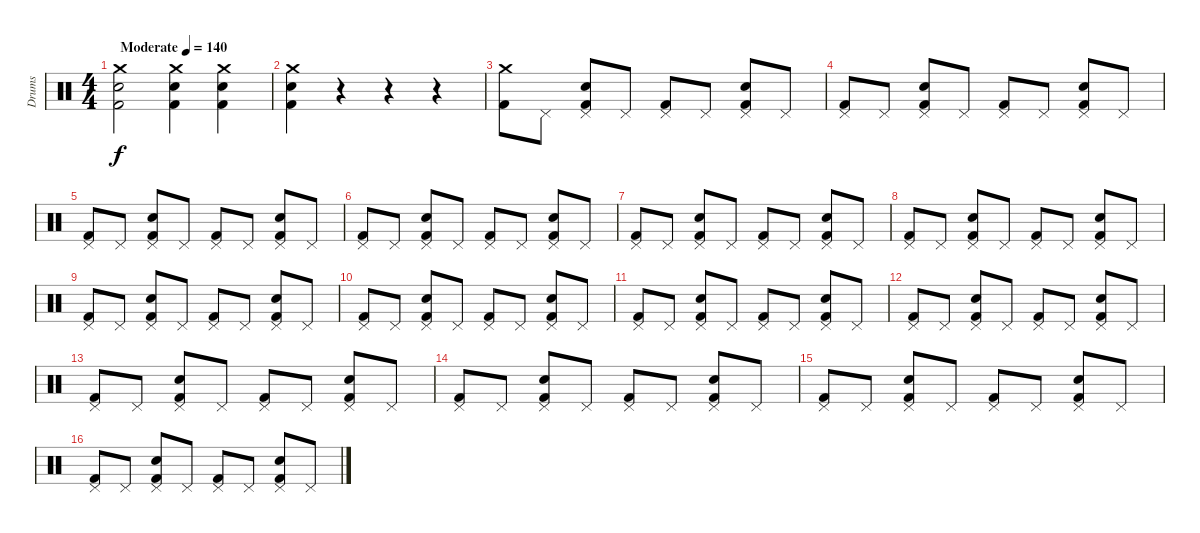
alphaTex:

\track ("Drums" "Drums") {instrument percussion}
\staff {score}
\articulation defaults
\ts (4 4)
\tempo (140 "Moderate")
\clef neutral
\ks c
("Crash medium (hit)" "Electric Snare (hit)" "Kick (hit) 2").2{dy f} ("Crash medium (hit)" "Electric Snare (hit)" "Kick (hit) 2").4 ("Crash medium (hit)" "Electric Snare (hit)" "Kick (hit) 2").4 |
("Crash medium (hit)" "Electric Snare (hit)" "Kick (hit) 2").4 r.4 r.4 r.4 |
("Crash medium (hit)" "Kick (hit) 2").8 "Pedal Hi-Hat (hit)".8 ("Pedal Hi-Hat (hit)" "Electric Snare (hit)" "Kick (hit) 2").8 "Pedal Hi-Hat (hit)".8 ("Pedal Hi-Hat (hit)" "Kick (hit) 2").8 "Pedal Hi-Hat (hit)".8 ("Pedal Hi-Hat (hit)" "Electric Snare (hit)" "Kick (hit) 2").8 "Pedal Hi-Hat (hit)".8 |
("Pedal Hi-Hat (hit)" "Kick (hit) 2").8 "Pedal Hi-Hat (hit)".8 ("Pedal Hi-Hat (hit)" "Electric Snare (hit)" "Kick (hit) 2").8 "Pedal Hi-Hat (hit)".8 ("Pedal Hi-Hat (hit)" "Kick (hit) 2").8 "Pedal Hi-Hat (hit)".8 ("Pedal Hi-Hat (hit)" "Electric Snare (hit)" "Kick (hit) 2").8 "Pedal Hi-Hat (hit)".8 |
("Pedal Hi-Hat (hit)" "Kick (hit) 2").8 "Pedal Hi-Hat (hit)".8 ("Pedal Hi-Hat (hit)" "Electric Snare (hit)" "Kick (hit) 2").8 "Pedal Hi-Hat (hit)".8 ("Pedal Hi-Hat (hit)" "Kick (hit) 2").8 "Pedal Hi-Hat (hit)".8 ("Pedal Hi-Hat (hit)" "Electric Snare (hit)" "Kick (hit) 2").8 "Pedal Hi-Hat (hit)".8 |
("Pedal Hi-Hat (hit)" "Kick (hit) 2").8 "Pedal Hi-Hat (hit)".8 ("Pedal Hi-Hat (hit)" "Electric Snare (hit)" "Kick (hit) 2").8 "Pedal Hi-Hat (hit)".8 ("Pedal Hi-Hat (hit)" "Kick (hit) 2").8 "Pedal Hi-Hat (hit)".8 ("Pedal Hi-Hat (hit)" "Electric Snare (hit)" "Kick (hit) 2").8 "Pedal Hi-Hat (hit)".8 |
("Pedal Hi-Hat (hit)" "Kick (hit) 2").8 "Pedal Hi-Hat (hit)".8 ("Pedal Hi-Hat (hit)" "Electric Snare (hit)" "Kick (hit) 2").8 "Pedal Hi-Hat (hit)".8 ("Pedal Hi-Hat (hit)" "Kick (hit) 2").8 "Pedal Hi-Hat (hit)".8 ("Pedal Hi-Hat (hit)" "Electric Snare (hit)" "Kick (hit) 2").8 "Pedal Hi-Hat (hit)".8 |
("Pedal Hi-Hat (hit)" "Kick (hit) 2").8 "Pedal Hi-Hat (hit)".8 ("Pedal Hi-Hat (hit)" "Electric Snare (hit)" "Kick (hit) 2").8 "Pedal Hi-Hat (hit)".8 ("Pedal Hi-Hat (hit)" "Kick (hit) 2").8 "Pedal Hi-Hat (hit)".8 ("Pedal Hi-Hat (hit)" "Electric Snare (hit)" "Kick (hit) 2").8 "Pedal Hi-Hat (hit)".8 |
("Pedal Hi-Hat (hit)" "Kick (hit) 2").8 "Pedal Hi-Hat (hit)".8 ("Pedal Hi-Hat (hit)" "Electric Snare (hit)" "Kick (hit) 2").8 "Pedal Hi-Hat (hit)".8 ("Pedal Hi-Hat (hit)" "Kick (hit) 2").8 "Pedal Hi-Hat (hit)".8 ("Pedal Hi-Hat (hit)" "Electric Snare (hit)" "Kick (hit) 2").8 "Pedal Hi-Hat (hit)".8 |
("Pedal Hi-Hat (hit)" "Kick (hit) 2").8 "Pedal Hi-Hat (hit)".8 ("Pedal Hi-Hat (hit)" "Electric Snare (hit)" "Kick (hit) 2").8 "Pedal Hi-Hat (hit)".8 ("Pedal Hi-Hat (hit)" "Kick (hit) 2").8 "Pedal Hi-Hat (hit)".8 ("Pedal Hi-Hat (hit)" "Electric Snare (hit)" "Kick (hit) 2").8 "Pedal Hi-Hat (hit)".8 |
("Pedal Hi-Hat (hit)" "Kick (hit) 2").8 "Pedal Hi-Hat (hit)".8 ("Pedal Hi-Hat (hit)" "Electric Snare (hit)" "Kick (hit) 2").8 "Pedal Hi-Hat (hit)".8 ("Pedal Hi-Hat (hit)" "Kick (hit) 2").8 "Pedal Hi-Hat (hit)".8 ("Pedal Hi-Hat (hit)" "Electric Snare (hit)" "Kick (hit) 2").8 "Pedal Hi-Hat (hit)".8 |
("Pedal Hi-Hat (hit)" "Kick (hit) 2").8 "Pedal Hi-Hat (hit)".8 ("Pedal Hi-Hat (hit)" "Electric Snare (hit)" "Kick (hit) 2").8 "Pedal Hi-Hat (hit)".8 ("Pedal Hi-Hat (hit)" "Kick (hit) 2").8 "Pedal Hi-Hat (hit)".8 ("Pedal Hi-Hat (hit)" "Electric Snare (hit)" "Kick (hit) 2").8 "Pedal Hi-Hat (hit)".8 |
("Pedal Hi-Hat (hit)" "Kick (hit) 2").8 "Pedal Hi-Hat (hit)".8 ("Pedal Hi-Hat (hit)" "Electric Snare (hit)" "Kick (hit) 2").8 "Pedal Hi-Hat (hit)".8 ("Pedal Hi-Hat (hit)" "Kick (hit) 2").8 "Pedal Hi-Hat (hit)".8 ("Pedal Hi-Hat (hit)" "Electric Snare (hit)" "Kick (hit) 2").8 "Pedal Hi-Hat (hit)".8 |
("Pedal Hi-Hat (hit)" "Kick (hit) 2").8 "Pedal Hi-Hat (hit)".8 ("Pedal Hi-Hat (hit)" "Electric Snare (hit)" "Kick (hit) 2").8 "Pedal Hi-Hat (hit)".8 ("Pedal Hi-Hat (hit)" "Kick (hit) 2").8 "Pedal Hi-Hat (hit)".8 ("Pedal Hi-Hat (hit)" "Electric Snare (hit)" "Kick (hit) 2").8 "Pedal Hi-Hat (hit)".8 |
("Pedal Hi-Hat (hit)" "Kick (hit) 2").8 "Pedal Hi-Hat (hit)".8 ("Pedal Hi-Hat (hit)" "Electric Snare (hit)" "Kick (hit) 2").8 "Pedal Hi-Hat (hit)".8 ("Pedal Hi-Hat (hit)" "Kick (hit) 2").8 "Pedal Hi-Hat (hit)".8 ("Pedal Hi-Hat (hit)" "Electric Snare (hit)" "Kick (hit) 2").8 "Pedal Hi-Hat (hit)".8 |
("Pedal Hi-Hat (hit)" "Kick (hit) 2").8 "Pedal Hi-Hat (hit)".8 ("Pedal Hi-Hat (hit)" "Electric Snare (hit)" "Kick (hit) 2").8 "Pedal Hi-Hat (hit)".8 ("Pedal Hi-Hat (hit)" "Kick (hit) 2").8 "Pedal Hi-Hat (hit)".8 ("Pedal Hi-Hat (hit)" "Electric Snare (hit)" "Kick (hit) 2").8 "Pedal Hi-Hat (hit)".8
